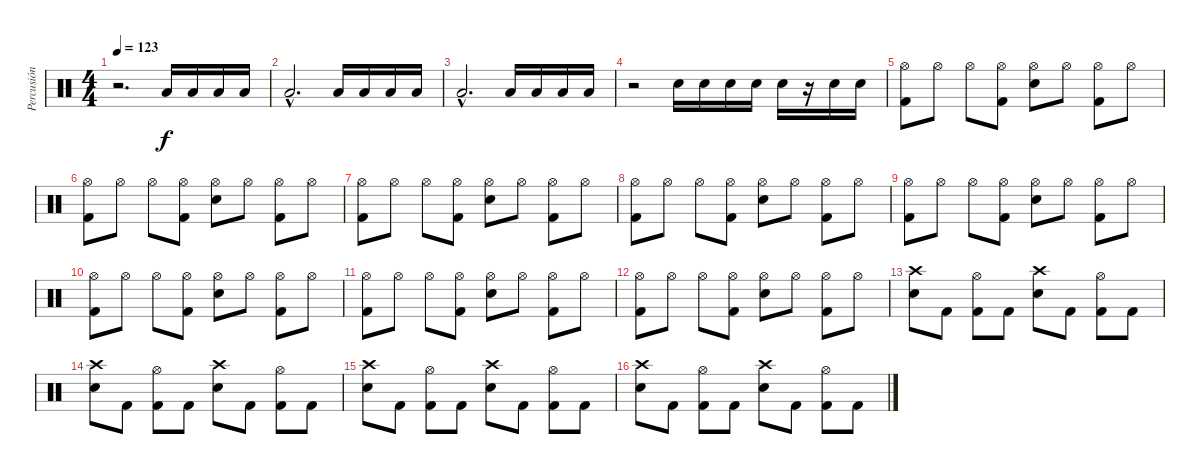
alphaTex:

\track ("Percusión" "Percusión") {instrument percussion}
\staff {score}
\articulation defaults
\ts (4 4)
\tempo 123
\clef neutral
\ks c
r.2{d dy f} "Low Floor Tom (hit)".16 "Low Floor Tom (hit)".16 "Low Floor Tom (hit)".16 "Low Floor Tom (hit)".16 |
"Low Floor Tom (hit)"{hac}.2{d} "Low Floor Tom (hit)".16 "Low Floor Tom (hit)".16 "Low Floor Tom (hit)".16 "Low Floor Tom (hit)".16 |
"Low Floor Tom (hit)"{hac}.2{d} "Low Floor Tom (hit)".16 "Low Floor Tom (hit)".16 "Low Floor Tom (hit)".16 "Low Floor Tom (hit)".16 |
r.2 "Snare (hit) 2".16 "Snare (hit) 2".16 "Snare (hit) 2".16 "Snare (hit) 2".16 "Snare (hit) 2".16 r.16 "Snare (hit) 2".16 "Snare (hit) 2".16 |
("Hi-Hat (open)" "Kick (hit) 2").8 "Hi-Hat (open)".8 "Hi-Hat (open)".8 ("Hi-Hat (open)" "Kick (hit) 2").8 ("Hi-Hat (open)" "Snare (hit) 2").8 "Hi-Hat (open)".8 ("Hi-Hat (open)" "Kick (hit) 2").8 "Hi-Hat (open)".8 |
("Hi-Hat (open)" "Kick (hit) 2").8 "Hi-Hat (open)".8 "Hi-Hat (open)".8 ("Hi-Hat (open)" "Kick (hit) 2").8 ("Hi-Hat (open)" "Snare (hit) 2").8 "Hi-Hat (open)".8 ("Hi-Hat (open)" "Kick (hit) 2").8 "Hi-Hat (open)".8 |
("Hi-Hat (open)" "Kick (hit) 2").8 "Hi-Hat (open)".8 "Hi-Hat (open)".8 ("Hi-Hat (open)" "Kick (hit) 2").8 ("Hi-Hat (open)" "Snare (hit) 2").8 "Hi-Hat (open)".8 ("Hi-Hat (open)" "Kick (hit) 2").8 "Hi-Hat (open)".8 |
("Hi-Hat (open)" "Kick (hit) 2").8 "Hi-Hat (open)".8 "Hi-Hat (open)".8 ("Hi-Hat (open)" "Kick (hit) 2").8 ("Hi-Hat (open)" "Snare (hit) 2").8 "Hi-Hat (open)".8 ("Hi-Hat (open)" "Kick (hit) 2").8 "Hi-Hat (open)".8 |
("Hi-Hat (open)" "Kick (hit) 2").8 "Hi-Hat (open)".8 "Hi-Hat (open)".8 ("Hi-Hat (open)" "Kick (hit) 2").8 ("Hi-Hat (open)" "Snare (hit) 2").8 "Hi-Hat (open)".8 ("Hi-Hat (open)" "Kick (hit) 2").8 "Hi-Hat (open)".8 |
("Hi-Hat (open)" "Kick (hit) 2").8 "Hi-Hat (open)".8 "Hi-Hat (open)".8 ("Hi-Hat (open)" "Kick (hit) 2").8 ("Hi-Hat (open)" "Snare (hit) 2").8 "Hi-Hat (open)".8 ("Hi-Hat (open)" "Kick (hit) 2").8 "Hi-Hat (open)".8 |
("Hi-Hat (open)" "Kick (hit) 2").8 "Hi-Hat (open)".8 "Hi-Hat (open)".8 ("Hi-Hat (open)" "Kick (hit) 2").8 ("Hi-Hat (open)" "Snare (hit) 2").8 "Hi-Hat (open)".8 ("Hi-Hat (open)" "Kick (hit) 2").8 "Hi-Hat (open)".8 |
("Hi-Hat (open)" "Kick (hit) 2").8 "Hi-Hat (open)".8 "Hi-Hat (open)".8 ("Hi-Hat (open)" "Kick (hit) 2").8 ("Hi-Hat (open)" "Snare (hit) 2").8 "Hi-Hat (open)".8 ("Hi-Hat (open)" "Kick (hit) 2").8 "Hi-Hat (open)".8 |
("Crash high (hit)" "Snare (hit) 2").8 "Kick (hit) 2".8 ("Hi-Hat (open)" "Kick (hit) 2").8 "Kick (hit) 2".8 ("Crash high (hit)" "Snare (hit) 2").8 "Kick (hit) 2".8 ("Hi-Hat (open)" "Kick (hit) 2").8 "Kick (hit) 2".8 |
("Crash high (hit)" "Snare (hit) 2").8 "Kick (hit) 2".8 ("Hi-Hat (open)" "Kick (hit) 2").8 "Kick (hit) 2".8 ("Crash high (hit)" "Snare (hit) 2").8 "Kick (hit) 2".8 ("Hi-Hat (open)" "Kick (hit) 2").8 "Kick (hit) 2".8 |
("Crash high (hit)" "Snare (hit) 2").8 "Kick (hit) 2".8 ("Hi-Hat (open)" "Kick (hit) 2").8 "Kick (hit) 2".8 ("Crash high (hit)" "Snare (hit) 2").8 "Kick (hit) 2".8 ("Hi-Hat (open)" "Kick (hit) 2").8 "Kick (hit) 2".8 |
("Crash high (hit)" "Snare (hit) 2").8 "Kick (hit) 2".8 ("Hi-Hat (open)" "Kick (hit) 2").8 "Kick (hit) 2".8 ("Crash high (hit)" "Snare (hit) 2").8 "Kick (hit) 2".8 ("Hi-Hat (open)" "Kick (hit) 2").8 "Kick (hit) 2".8
